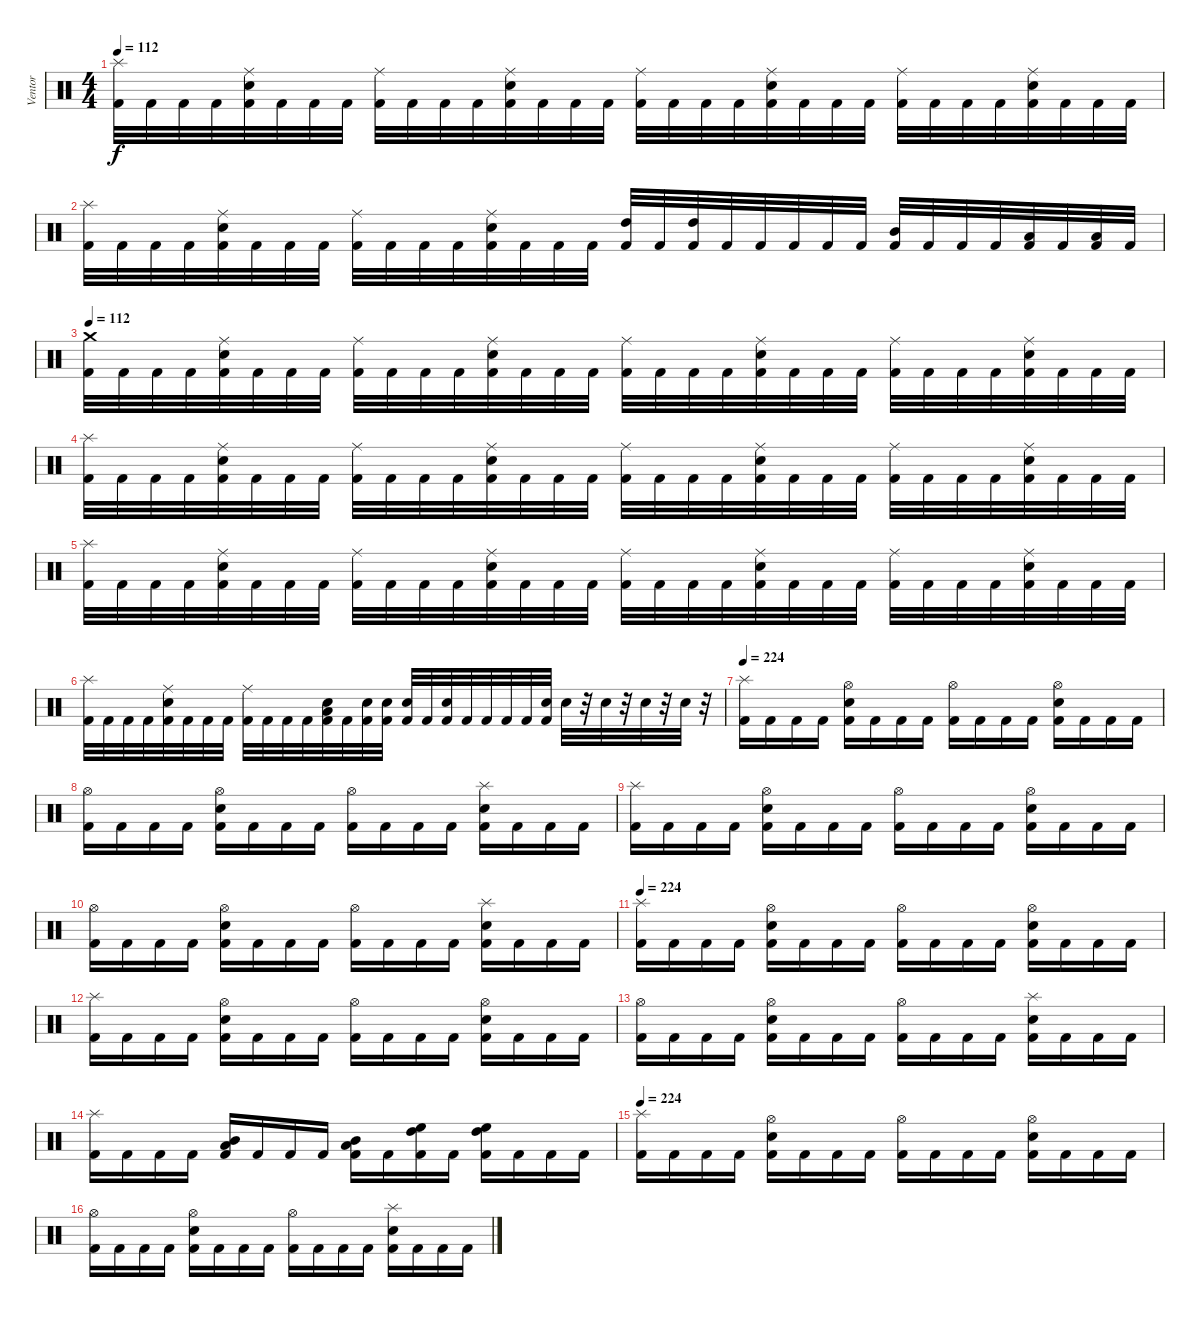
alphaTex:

\track ("Ventor" "Ventor") {instrument percussion}
\staff {score}
\articulation defaults
\ts (4 4)
\tempo 112
\clef neutral
\ks c
("Splash (hit)" "Kick (hit) 2").32{dy f} "Kick (hit) 2".32 "Kick (hit) 2".32 "Kick (hit) 2".32 ("Ride (middle)" "Electric Snare (hit)" "Kick (hit) 2").32 "Kick (hit) 2".32 "Kick (hit) 2".32 "Kick (hit) 2".32 ("Ride (middle)" "Kick (hit) 2").32 "Kick (hit) 2".32 "Kick (hit) 2".32 "Kick (hit) 2".32 ("Ride (middle)" "Electric Snare (hit)" "Kick (hit) 2").32 "Kick (hit) 2".32 "Kick (hit) 2".32 "Kick (hit) 2".32 ("Ride (middle)" "Kick (hit) 2").32 "Kick (hit) 2".32 "Kick (hit) 2".32 "Kick (hit) 2".32 ("Ride (middle)" "Electric Snare (hit)" "Kick (hit) 2").32 "Kick (hit) 2".32 "Kick (hit) 2".32 "Kick (hit) 2".32 ("Ride (middle)" "Kick (hit) 2").32 "Kick (hit) 2".32 "Kick (hit) 2".32 "Kick (hit) 2".32 ("Ride (middle)" "Electric Snare (hit)" "Kick (hit) 2").32 "Kick (hit) 2".32 "Kick (hit) 2".32 "Kick (hit) 2".32 |
("Splash (hit)" "Kick (hit) 2").32 "Kick (hit) 2".32 "Kick (hit) 2".32 "Kick (hit) 2".32 ("Ride (middle)" "Electric Snare (hit)" "Kick (hit) 2").32 "Kick (hit) 2".32 "Kick (hit) 2".32 "Kick (hit) 2".32 ("Ride (middle)" "Kick (hit) 2").32 "Kick (hit) 2".32 "Kick (hit) 2".32 "Kick (hit) 2".32 ("Ride (middle)" "Electric Snare (hit)" "Kick (hit) 2").32 "Kick (hit) 2".32 "Kick (hit) 2".32 "Kick (hit) 2".32 ("High Tom (hit)" "Kick (hit) 2").32 "Kick (hit) 2".32 ("High Tom (hit)" "Kick (hit) 2").32 "Kick (hit) 2".32 "Kick (hit) 2".32 "Kick (hit) 2".32 "Kick (hit) 2".32 "Kick (hit) 2".32 ("Mid Tom (hit)" "Kick (hit) 2").32 "Kick (hit) 2".32 "Kick (hit) 2".32 "Kick (hit) 2".32 ("Low Tom (hit)" "Kick (hit) 2").32 "Kick (hit) 2".32 ("Low Tom (hit)" "Kick (hit) 2").32 "Kick (hit) 2".32 |
\tempo 112
("Crash medium (hit)" "Kick (hit) 2").32 "Kick (hit) 2".32 "Kick (hit) 2".32 "Kick (hit) 2".32 ("Ride (middle)" "Electric Snare (hit)" "Kick (hit) 2").32 "Kick (hit) 2".32 "Kick (hit) 2".32 "Kick (hit) 2".32 ("Ride (middle)" "Kick (hit) 2").32 "Kick (hit) 2".32 "Kick (hit) 2".32 "Kick (hit) 2".32 ("Ride (middle)" "Electric Snare (hit)" "Kick (hit) 2").32 "Kick (hit) 2".32 "Kick (hit) 2".32 "Kick (hit) 2".32 ("Ride (middle)" "Kick (hit) 2").32 "Kick (hit) 2".32 "Kick (hit) 2".32 "Kick (hit) 2".32 ("Ride (middle)" "Electric Snare (hit)" "Kick (hit) 2").32 "Kick (hit) 2".32 "Kick (hit) 2".32 "Kick (hit) 2".32 ("Ride (middle)" "Kick (hit) 2").32 "Kick (hit) 2".32 "Kick (hit) 2".32 "Kick (hit) 2".32 ("Ride (middle)" "Electric Snare (hit)" "Kick (hit) 2").32 "Kick (hit) 2".32 "Kick (hit) 2".32 "Kick (hit) 2".32 |
("Splash (hit)" "Kick (hit) 2").32 "Kick (hit) 2".32 "Kick (hit) 2".32 "Kick (hit) 2".32 ("Ride (middle)" "Electric Snare (hit)" "Kick (hit) 2").32 "Kick (hit) 2".32 "Kick (hit) 2".32 "Kick (hit) 2".32 ("Ride (middle)" "Kick (hit) 2").32 "Kick (hit) 2".32 "Kick (hit) 2".32 "Kick (hit) 2".32 ("Ride (middle)" "Electric Snare (hit)" "Kick (hit) 2").32 "Kick (hit) 2".32 "Kick (hit) 2".32 "Kick (hit) 2".32 ("Ride (middle)" "Kick (hit) 2").32 "Kick (hit) 2".32 "Kick (hit) 2".32 "Kick (hit) 2".32 ("Ride (middle)" "Electric Snare (hit)" "Kick (hit) 2").32 "Kick (hit) 2".32 "Kick (hit) 2".32 "Kick (hit) 2".32 ("Ride (middle)" "Kick (hit) 2").32 "Kick (hit) 2".32 "Kick (hit) 2".32 "Kick (hit) 2".32 ("Ride (middle)" "Electric Snare (hit)" "Kick (hit) 2").32 "Kick (hit) 2".32 "Kick (hit) 2".32 "Kick (hit) 2".32 |
("Splash (hit)" "Kick (hit) 2").32 "Kick (hit) 2".32 "Kick (hit) 2".32 "Kick (hit) 2".32 ("Ride (middle)" "Electric Snare (hit)" "Kick (hit) 2").32 "Kick (hit) 2".32 "Kick (hit) 2".32 "Kick (hit) 2".32 ("Ride (middle)" "Kick (hit) 2").32 "Kick (hit) 2".32 "Kick (hit) 2".32 "Kick (hit) 2".32 ("Ride (middle)" "Electric Snare (hit)" "Kick (hit) 2").32 "Kick (hit) 2".32 "Kick (hit) 2".32 "Kick (hit) 2".32 ("Ride (middle)" "Kick (hit) 2").32 "Kick (hit) 2".32 "Kick (hit) 2".32 "Kick (hit) 2".32 ("Ride (middle)" "Electric Snare (hit)" "Kick (hit) 2").32 "Kick (hit) 2".32 "Kick (hit) 2".32 "Kick (hit) 2".32 ("Ride (middle)" "Kick (hit) 2").32 "Kick (hit) 2".32 "Kick (hit) 2".32 "Kick (hit) 2".32 ("Ride (middle)" "Electric Snare (hit)" "Kick (hit) 2").32 "Kick (hit) 2".32 "Kick (hit) 2".32 "Kick (hit) 2".32 |
("Splash (hit)" "Kick (hit) 2").32 "Kick (hit) 2".32 "Kick (hit) 2".32 "Kick (hit) 2".32 ("Ride (middle)" "Electric Snare (hit)" "Kick (hit) 2").32 "Kick (hit) 2".32 "Kick (hit) 2".32 "Kick (hit) 2".32 ("Ride (middle)" "Kick (hit) 2").32 "Kick (hit) 2".32 "Kick (hit) 2".32 "Kick (hit) 2".32 ("Low Floor Tom (hit)" "Electric Snare (hit)" "Kick (hit) 2").32 "Kick (hit) 2".32 ("Electric Snare (hit)" "Kick (hit) 2").32 ("Electric Snare (hit)" "Kick (hit) 2").32 ("Electric Snare (hit)" "Kick (hit) 2").32 "Kick (hit) 2".32 ("Electric Snare (hit)" "Kick (hit) 2").32 "Kick (hit) 2".32 "Kick (hit) 2".32 "Kick (hit) 2".32 "Kick (hit) 2".32 ("Electric Snare (hit)" "Kick (hit) 2").32 "Electric Snare (hit)".32 r.32 "Electric Snare (hit)".32 r.32 "Electric Snare (hit)".32 r.32 "Electric Snare (hit)".32 r.32 |
\tempo 224
("Splash (hit)" "Kick (hit) 2").16 "Kick (hit) 2".16 "Kick (hit) 2".16 "Kick (hit) 2".16 ("Hi-Hat (open)" "Electric Snare (hit)" "Kick (hit) 2").16 "Kick (hit) 2".16 "Kick (hit) 2".16 "Kick (hit) 2".16 ("Hi-Hat (open)" "Kick (hit) 2").16 "Kick (hit) 2".16 "Kick (hit) 2".16 "Kick (hit) 2".16 ("Hi-Hat (open)" "Electric Snare (hit)" "Kick (hit) 2").16 "Kick (hit) 2".16 "Kick (hit) 2".16 "Kick (hit) 2".16 |
("Hi-Hat (open)" "Kick (hit) 2").16 "Kick (hit) 2".16 "Kick (hit) 2".16 "Kick (hit) 2".16 ("Hi-Hat (open)" "Electric Snare (hit)" "Kick (hit) 2").16 "Kick (hit) 2".16 "Kick (hit) 2".16 "Kick (hit) 2".16 ("Hi-Hat (open)" "Kick (hit) 2").16 "Kick (hit) 2".16 "Kick (hit) 2".16 "Kick (hit) 2".16 ("Splash (hit)" "Electric Snare (hit)" "Kick (hit) 2").16 "Kick (hit) 2".16 "Kick (hit) 2".16 "Kick (hit) 2".16 |
("Splash (hit)" "Kick (hit) 2").16 "Kick (hit) 2".16 "Kick (hit) 2".16 "Kick (hit) 2".16 ("Hi-Hat (open)" "Electric Snare (hit)" "Kick (hit) 2").16 "Kick (hit) 2".16 "Kick (hit) 2".16 "Kick (hit) 2".16 ("Hi-Hat (open)" "Kick (hit) 2").16 "Kick (hit) 2".16 "Kick (hit) 2".16 "Kick (hit) 2".16 ("Hi-Hat (open)" "Electric Snare (hit)" "Kick (hit) 2").16 "Kick (hit) 2".16 "Kick (hit) 2".16 "Kick (hit) 2".16 |
("Hi-Hat (open)" "Kick (hit) 2").16 "Kick (hit) 2".16 "Kick (hit) 2".16 "Kick (hit) 2".16 ("Hi-Hat (open)" "Electric Snare (hit)" "Kick (hit) 2").16 "Kick (hit) 2".16 "Kick (hit) 2".16 "Kick (hit) 2".16 ("Hi-Hat (open)" "Kick (hit) 2").16 "Kick (hit) 2".16 "Kick (hit) 2".16 "Kick (hit) 2".16 ("Splash (hit)" "Electric Snare (hit)" "Kick (hit) 2").16 "Kick (hit) 2".16 "Kick (hit) 2".16 "Kick (hit) 2".16 |
\tempo 224
("Splash (hit)" "Kick (hit) 2").16 "Kick (hit) 2".16 "Kick (hit) 2".16 "Kick (hit) 2".16 ("Hi-Hat (open)" "Electric Snare (hit)" "Kick (hit) 2").16 "Kick (hit) 2".16 "Kick (hit) 2".16 "Kick (hit) 2".16 ("Hi-Hat (open)" "Kick (hit) 2").16 "Kick (hit) 2".16 "Kick (hit) 2".16 "Kick (hit) 2".16 ("Hi-Hat (open)" "Electric Snare (hit)" "Kick (hit) 2").16 "Kick (hit) 2".16 "Kick (hit) 2".16 "Kick (hit) 2".16 |
("Splash (hit)" "Kick (hit) 2").16 "Kick (hit) 2".16 "Kick (hit) 2".16 "Kick (hit) 2".16 ("Hi-Hat (open)" "Electric Snare (hit)" "Kick (hit) 2").16 "Kick (hit) 2".16 "Kick (hit) 2".16 "Kick (hit) 2".16 ("Hi-Hat (open)" "Kick (hit) 2").16 "Kick (hit) 2".16 "Kick (hit) 2".16 "Kick (hit) 2".16 ("Hi-Hat (open)" "Electric Snare (hit)" "Kick (hit) 2").16 "Kick (hit) 2".16 "Kick (hit) 2".16 "Kick (hit) 2".16 |
("Hi-Hat (open)" "Kick (hit) 2").16 "Kick (hit) 2".16 "Kick (hit) 2".16 "Kick (hit) 2".16 ("Hi-Hat (open)" "Electric Snare (hit)" "Kick (hit) 2").16 "Kick (hit) 2".16 "Kick (hit) 2".16 "Kick (hit) 2".16 ("Hi-Hat (open)" "Kick (hit) 2").16 "Kick (hit) 2".16 "Kick (hit) 2".16 "Kick (hit) 2".16 ("Splash (hit)" "Electric Snare (hit)" "Kick (hit) 2").16 "Kick (hit) 2".16 "Kick (hit) 2".16 "Kick (hit) 2".16 |
("Splash (hit)" "Kick (hit) 2").16 "Kick (hit) 2".16 "Kick (hit) 2".16 "Kick (hit) 2".16 ("Low Tom (hit)" "Mid Tom (hit)" "Kick (hit) 2").16 "Kick (hit) 2".16 "Kick (hit) 2".16 "Kick (hit) 2".16 ("Low Tom (hit)" "Mid Tom (hit)" "Kick (hit) 2").16 "Kick (hit) 2".16 ("High Floor Tom (hit)" "High Tom (hit)" "Kick (hit) 2").16 "Kick (hit) 2".16 ("High Floor Tom (hit)" "High Tom (hit)" "Kick (hit) 2").16 "Kick (hit) 2".16 "Kick (hit) 2".16 "Kick (hit) 2".16 |
\tempo 224
("Splash (hit)" "Kick (hit) 2").16 "Kick (hit) 2".16 "Kick (hit) 2".16 "Kick (hit) 2".16 ("Hi-Hat (open)" "Electric Snare (hit)" "Kick (hit) 2").16 "Kick (hit) 2".16 "Kick (hit) 2".16 "Kick (hit) 2".16 ("Hi-Hat (open)" "Kick (hit) 2").16 "Kick (hit) 2".16 "Kick (hit) 2".16 "Kick (hit) 2".16 ("Hi-Hat (open)" "Electric Snare (hit)" "Kick (hit) 2").16 "Kick (hit) 2".16 "Kick (hit) 2".16 "Kick (hit) 2".16 |
("Hi-Hat (open)" "Kick (hit) 2").16 "Kick (hit) 2".16 "Kick (hit) 2".16 "Kick (hit) 2".16 ("Hi-Hat (open)" "Electric Snare (hit)" "Kick (hit) 2").16 "Kick (hit) 2".16 "Kick (hit) 2".16 "Kick (hit) 2".16 ("Hi-Hat (open)" "Kick (hit) 2").16 "Kick (hit) 2".16 "Kick (hit) 2".16 "Kick (hit) 2".16 ("Splash (hit)" "Electric Snare (hit)" "Kick (hit) 2").16 "Kick (hit) 2".16 "Kick (hit) 2".16 "Kick (hit) 2".16
